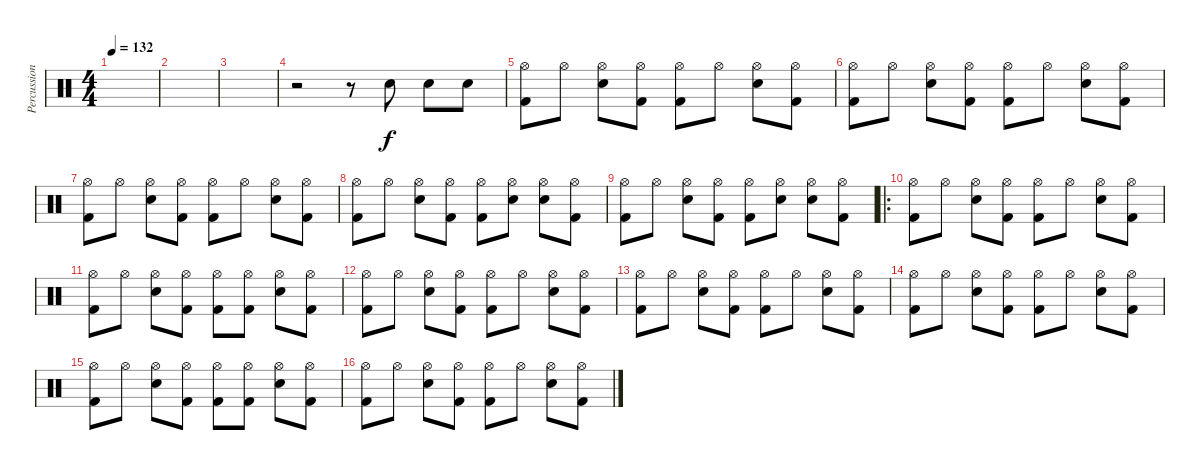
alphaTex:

\track ("Percussion" "Percussion") {instrument percussion}
\staff {score}
\articulation defaults
\ts (4 4)
\tempo 132
\clef neutral
\ks c
|
|
|
r.2 r.8 "Electric Snare (hit)".8 "Electric Snare (hit)".8 "Electric Snare (hit)".8 |
("Hi-Hat (open)" "Kick (hit) 2").8 "Hi-Hat (open)".8 ("Hi-Hat (open)" "Electric Snare (hit)").8 ("Hi-Hat (open)" "Kick (hit) 2").8 ("Hi-Hat (open)" "Kick (hit) 2").8 "Hi-Hat (open)".8 ("Hi-Hat (open)" "Electric Snare (hit)").8 ("Hi-Hat (open)" "Kick (hit) 2").8 |
("Hi-Hat (open)" "Kick (hit) 2").8 "Hi-Hat (open)".8 ("Hi-Hat (open)" "Electric Snare (hit)").8 ("Hi-Hat (open)" "Kick (hit) 2").8 ("Hi-Hat (open)" "Kick (hit) 2").8 "Hi-Hat (open)".8 ("Hi-Hat (open)" "Electric Snare (hit)").8 ("Hi-Hat (open)" "Kick (hit) 2").8 |
("Hi-Hat (open)" "Kick (hit) 2").8 "Hi-Hat (open)".8 ("Hi-Hat (open)" "Electric Snare (hit)").8 ("Hi-Hat (open)" "Kick (hit) 2").8 ("Hi-Hat (open)" "Kick (hit) 2").8 "Hi-Hat (open)".8 ("Hi-Hat (open)" "Electric Snare (hit)").8 ("Hi-Hat (open)" "Kick (hit) 2").8 |
("Hi-Hat (open)" "Kick (hit) 2").8 "Hi-Hat (open)".8 ("Hi-Hat (open)" "Electric Snare (hit)").8 ("Hi-Hat (open)" "Kick (hit) 2").8 ("Hi-Hat (open)" "Kick (hit) 2").8 ("Hi-Hat (open)" "Electric Snare (hit)").8 ("Hi-Hat (open)" "Electric Snare (hit)").8 ("Hi-Hat (open)" "Kick (hit) 2").8 |
("Hi-Hat (open)" "Kick (hit) 2").8 "Hi-Hat (open)".8 ("Hi-Hat (open)" "Electric Snare (hit)").8 ("Hi-Hat (open)" "Kick (hit) 2").8 ("Hi-Hat (open)" "Kick (hit) 2").8 ("Hi-Hat (open)" "Electric Snare (hit)").8 ("Hi-Hat (open)" "Electric Snare (hit)").8 ("Hi-Hat (open)" "Kick (hit) 2").8 |
\ro
("Hi-Hat (open)" "Kick (hit) 2").8 "Hi-Hat (open)".8 ("Hi-Hat (open)" "Electric Snare (hit)").8 ("Hi-Hat (open)" "Kick (hit) 2").8 ("Hi-Hat (open)" "Kick (hit) 2").8 "Hi-Hat (open)".8 ("Hi-Hat (open)" "Electric Snare (hit)").8 ("Hi-Hat (open)" "Kick (hit) 2").8 |
("Hi-Hat (open)" "Kick (hit) 2").8 "Hi-Hat (open)".8 ("Hi-Hat (open)" "Electric Snare (hit)").8 ("Hi-Hat (open)" "Kick (hit) 2").8 ("Hi-Hat (open)" "Kick (hit) 2").8 ("Hi-Hat (open)" "Kick (hit) 2").8 ("Hi-Hat (open)" "Electric Snare (hit)").8 ("Hi-Hat (open)" "Kick (hit) 2").8 |
("Hi-Hat (open)" "Kick (hit) 2").8 "Hi-Hat (open)".8 ("Hi-Hat (open)" "Electric Snare (hit)").8 ("Hi-Hat (open)" "Kick (hit) 2").8 ("Hi-Hat (open)" "Kick (hit) 2").8 "Hi-Hat (open)".8 ("Hi-Hat (open)" "Electric Snare (hit)").8 ("Hi-Hat (open)" "Kick (hit) 2").8 |
("Hi-Hat (open)" "Kick (hit) 2").8 "Hi-Hat (open)".8 ("Hi-Hat (open)" "Electric Snare (hit)").8 ("Hi-Hat (open)" "Kick (hit) 2").8 ("Hi-Hat (open)" "Kick (hit) 2").8 "Hi-Hat (open)".8 ("Hi-Hat (open)" "Electric Snare (hit)").8 ("Hi-Hat (open)" "Kick (hit) 2").8 |
("Hi-Hat (open)" "Kick (hit) 2").8 "Hi-Hat (open)".8 ("Hi-Hat (open)" "Electric Snare (hit)").8 ("Hi-Hat (open)" "Kick (hit) 2").8 ("Hi-Hat (open)" "Kick (hit) 2").8 "Hi-Hat (open)".8 ("Hi-Hat (open)" "Electric Snare (hit)").8 ("Hi-Hat (open)" "Kick (hit) 2").8 |
("Hi-Hat (open)" "Kick (hit) 2").8 "Hi-Hat (open)".8 ("Hi-Hat (open)" "Electric Snare (hit)").8 ("Hi-Hat (open)" "Kick (hit) 2").8 ("Hi-Hat (open)" "Kick (hit) 2").8 ("Hi-Hat (open)" "Kick (hit) 2").8 ("Hi-Hat (open)" "Electric Snare (hit)").8 ("Hi-Hat (open)" "Kick (hit) 2").8 |
("Hi-Hat (open)" "Kick (hit) 2").8 "Hi-Hat (open)".8 ("Hi-Hat (open)" "Electric Snare (hit)").8 ("Hi-Hat (open)" "Kick (hit) 2").8 ("Hi-Hat (open)" "Kick (hit) 2").8 "Hi-Hat (open)".8 ("Hi-Hat (open)" "Electric Snare (hit)").8 ("Hi-Hat (open)" "Kick (hit) 2").8
